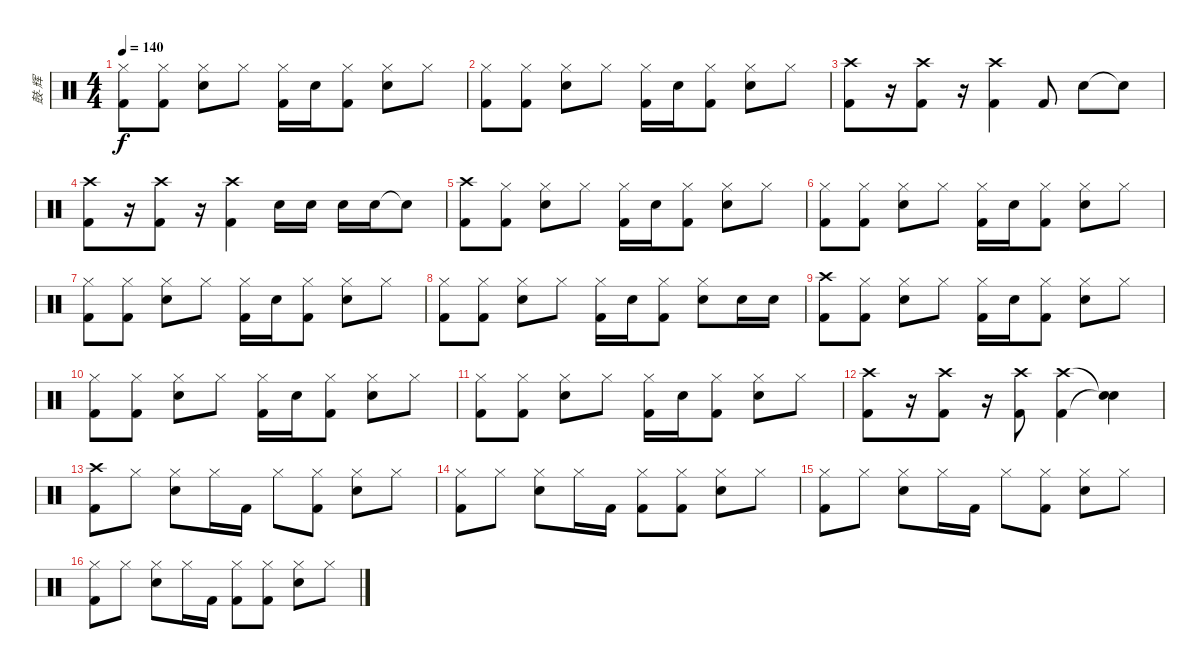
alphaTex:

\track ("鼓-辉" "鼓-辉") {instrument percussion}
\staff {score}
\articulation defaults
\ts (4 4)
\tempo 140
\clef neutral
\ks c
("Hi-Hat (closed)" "Kick (hit) 2").8{dy f} ("Hi-Hat (closed)" "Kick (hit) 2").8 ("Hi-Hat (closed)" "Snare (hit) 2").8 "Hi-Hat (closed)".8 ("Hi-Hat (closed)" "Kick (hit) 2").16 "Snare (hit) 2".16 ("Hi-Hat (closed)" "Kick (hit) 2").8 ("Hi-Hat (closed)" "Snare (hit) 2").8 "Hi-Hat (closed)".8 |
("Hi-Hat (closed)" "Kick (hit) 2").8 ("Hi-Hat (closed)" "Kick (hit) 2").8 ("Hi-Hat (closed)" "Snare (hit) 2").8 "Hi-Hat (closed)".8 ("Hi-Hat (closed)" "Kick (hit) 2").16 "Snare (hit) 2".16 ("Hi-Hat (closed)" "Kick (hit) 2").8 ("Hi-Hat (closed)" "Snare (hit) 2").8 "Hi-Hat (closed)".8 |
("Crash high (hit)" "Kick (hit) 2").8 r.16 ("Crash high (hit)" "Kick (hit) 2").8 r.16 ("Crash high (hit)" "Kick (hit) 2").4 "Kick (hit) 2".8 "Snare (hit) 2".8 "Snare (hit) 2"{t}.8 |
("Crash high (hit)" "Kick (hit) 2").8 r.16 ("Crash high (hit)" "Kick (hit) 2").8 r.16 ("Crash high (hit)" "Kick (hit) 2").4 "Snare (hit) 2".16 "Snare (hit) 2".16 "Snare (hit) 2".16 "Snare (hit) 2".16 "Snare (hit) 2"{t}.8 |
("Crash high (hit)" "Kick (hit) 2").8 ("Hi-Hat (closed)" "Kick (hit) 2").8 ("Hi-Hat (closed)" "Snare (hit) 2").8 "Hi-Hat (closed)".8 ("Hi-Hat (closed)" "Kick (hit) 2").16 "Snare (hit) 2".16 ("Hi-Hat (closed)" "Kick (hit) 2").8 ("Hi-Hat (closed)" "Snare (hit) 2").8 "Hi-Hat (closed)".8 |
("Hi-Hat (closed)" "Kick (hit) 2").8 ("Hi-Hat (closed)" "Kick (hit) 2").8 ("Hi-Hat (closed)" "Snare (hit) 2").8 "Hi-Hat (closed)".8 ("Hi-Hat (closed)" "Kick (hit) 2").16 "Snare (hit) 2".16 ("Hi-Hat (closed)" "Kick (hit) 2").8 ("Hi-Hat (closed)" "Snare (hit) 2").8 "Hi-Hat (closed)".8 |
("Hi-Hat (closed)" "Kick (hit) 2").8 ("Hi-Hat (closed)" "Kick (hit) 2").8 ("Hi-Hat (closed)" "Snare (hit) 2").8 "Hi-Hat (closed)".8 ("Hi-Hat (closed)" "Kick (hit) 2").16 "Snare (hit) 2".16 ("Hi-Hat (closed)" "Kick (hit) 2").8 ("Hi-Hat (closed)" "Snare (hit) 2").8 "Hi-Hat (closed)".8 |
("Hi-Hat (closed)" "Kick (hit) 2").8 ("Hi-Hat (closed)" "Kick (hit) 2").8 ("Hi-Hat (closed)" "Snare (hit) 2").8 "Hi-Hat (closed)".8 ("Hi-Hat (closed)" "Kick (hit) 2").16 "Snare (hit) 2".16 ("Hi-Hat (closed)" "Kick (hit) 2").8 ("Hi-Hat (closed)" "Snare (hit) 2").8 "Snare (hit) 2".16 "Snare (hit) 2".16 |
("Crash high (hit)" "Kick (hit) 2").8 ("Hi-Hat (closed)" "Kick (hit) 2").8 ("Hi-Hat (closed)" "Snare (hit) 2").8 "Hi-Hat (closed)".8 ("Hi-Hat (closed)" "Kick (hit) 2").16 "Snare (hit) 2".16 ("Hi-Hat (closed)" "Kick (hit) 2").8 ("Hi-Hat (closed)" "Snare (hit) 2").8 "Hi-Hat (closed)".8 |
("Hi-Hat (closed)" "Kick (hit) 2").8 ("Hi-Hat (closed)" "Kick (hit) 2").8 ("Hi-Hat (closed)" "Snare (hit) 2").8 "Hi-Hat (closed)".8 ("Hi-Hat (closed)" "Kick (hit) 2").16 "Snare (hit) 2".16 ("Hi-Hat (closed)" "Kick (hit) 2").8 ("Hi-Hat (closed)" "Snare (hit) 2").8 "Hi-Hat (closed)".8 |
("Hi-Hat (closed)" "Kick (hit) 2").8 ("Hi-Hat (closed)" "Kick (hit) 2").8 ("Hi-Hat (closed)" "Snare (hit) 2").8 "Hi-Hat (closed)".8 ("Hi-Hat (closed)" "Kick (hit) 2").16 "Snare (hit) 2".16 ("Hi-Hat (closed)" "Kick (hit) 2").8 ("Hi-Hat (closed)" "Snare (hit) 2").8 "Hi-Hat (closed)".8 |
("Crash high (hit)" "Kick (hit) 2").8 r.16 ("Crash high (hit)" "Kick (hit) 2").8 r.16 ("Crash high (hit)" "Kick (hit) 2").8 ("Crash high (hit)" "Kick (hit) 2").4 ("Snare (hit)"{t} "Snare (hit)"{t}).4 |
("Crash high (hit)" "Kick (hit) 2").8 "Hi-Hat (closed)".8 ("Hi-Hat (closed)" "Snare (hit) 2").8 "Hi-Hat (closed)".16 "Kick (hit) 2".16 "Hi-Hat (closed)".8 ("Hi-Hat (closed)" "Kick (hit) 2").8 ("Hi-Hat (closed)" "Snare (hit) 2").8 "Hi-Hat (closed)".8 |
("Hi-Hat (closed)" "Kick (hit) 2").8 "Hi-Hat (closed)".8 ("Hi-Hat (closed)" "Snare (hit) 2").8 "Hi-Hat (closed)".16 "Kick (hit) 2".16 ("Hi-Hat (closed)" "Kick (hit) 2").8 ("Hi-Hat (closed)" "Kick (hit) 2").8 ("Hi-Hat (closed)" "Snare (hit) 2").8 "Hi-Hat (closed)".8 |
("Hi-Hat (closed)" "Kick (hit) 2").8 "Hi-Hat (closed)".8 ("Hi-Hat (closed)" "Snare (hit) 2").8 "Hi-Hat (closed)".16 "Kick (hit) 2".16 "Hi-Hat (closed)".8 ("Hi-Hat (closed)" "Kick (hit) 2").8 ("Hi-Hat (closed)" "Snare (hit) 2").8 "Hi-Hat (closed)".8 |
("Hi-Hat (closed)" "Kick (hit) 2").8 "Hi-Hat (closed)".8 ("Hi-Hat (closed)" "Snare (hit) 2").8 "Hi-Hat (closed)".16 "Kick (hit) 2".16 ("Hi-Hat (closed)" "Kick (hit) 2").8 ("Hi-Hat (closed)" "Kick (hit) 2").8 ("Hi-Hat (closed)" "Snare (hit) 2").8 "Hi-Hat (closed)".8
